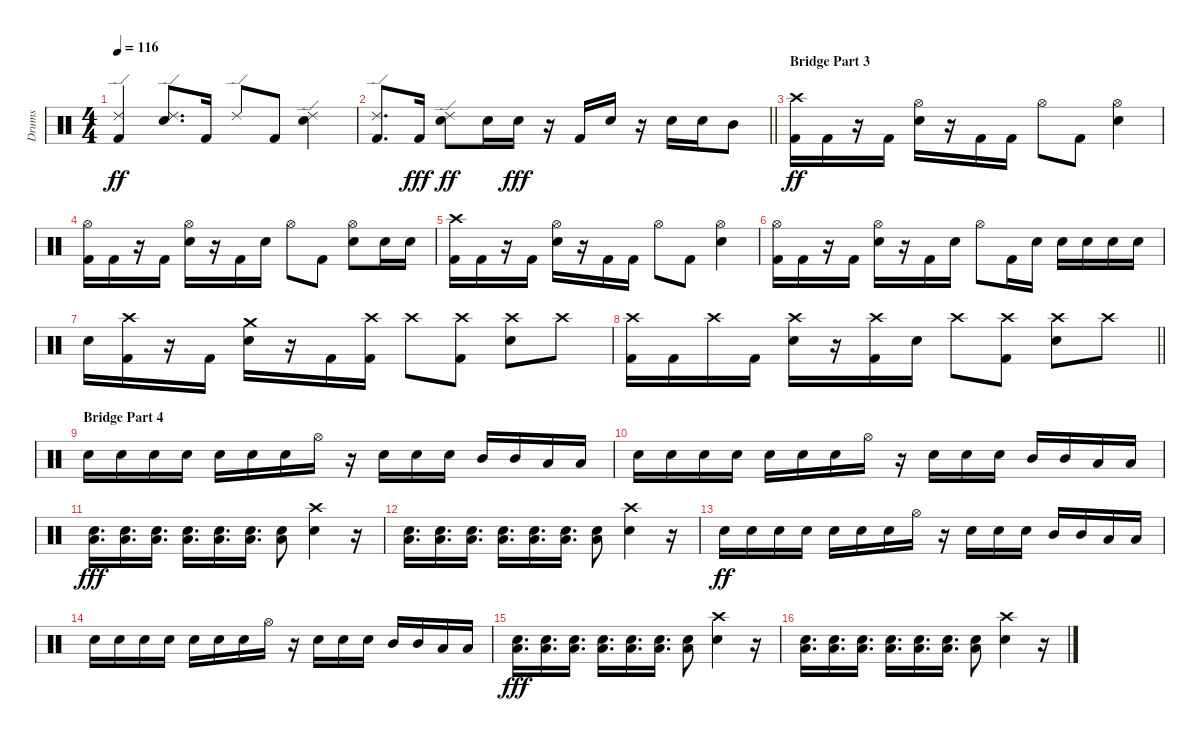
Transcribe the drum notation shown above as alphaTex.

\track ("Drums" "Drums") {instrument percussion}
\staff {score}
\articulation defaults
\ts (4 4)
\tempo 116
\clef neutral
\ks c
("Ride (edge) 2" "Kick (hit) 2").4{dy ff} ("Ride (edge) 2" "Electric Snare (hit)").8{d} "Kick (hit) 2".16 "Ride (edge) 2".8 "Kick (hit) 2".8 ("Ride (edge) 2" "Electric Snare (hit)").4 |
\barLineRight lightlight
("Ride (edge) 2" "Kick (hit) 2").8{d} "Kick (hit) 2".16{dy fff} ("Ride (edge) 2" "Electric Snare (hit)").8{dy ff} "Electric Snare (hit)".16 "Electric Snare (hit)".16{dy fff} r.16 "Kick (hit) 2".16 "Electric Snare (hit)".16 r.16 "Electric Snare (hit)".16 "Electric Snare (hit)".16 "Mid Tom (hit)".8 |
\section ("" "Bridge Part 3")
("Kick (hit) 2" "Crash high (hit)").16{dy ff} "Kick (hit) 2".16 r.16 "Kick (hit) 2".16 ("Electric Snare (hit)" "Hi-Hat (open)").16 r.16 "Kick (hit) 2".16 "Kick (hit) 2".16 "Hi-Hat (open)".8 "Kick (hit) 2".8 ("Electric Snare (hit)" "Hi-Hat (open)").4 |
("Kick (hit) 2" "Hi-Hat (open)").16 "Kick (hit) 2".16 r.16 "Kick (hit) 2".16 ("Electric Snare (hit)" "Hi-Hat (open)").16 r.16 "Kick (hit) 2".16 "Electric Snare (hit)".16 "Hi-Hat (open)".8 "Kick (hit) 2".8 ("Electric Snare (hit)" "Hi-Hat (open)").8 "Electric Snare (hit)".16 "Electric Snare (hit)".16 |
("Kick (hit) 2" "Crash high (hit)").16 "Kick (hit) 2".16 r.16 "Kick (hit) 2".16 ("Electric Snare (hit)" "Hi-Hat (open)").16 r.16 "Kick (hit) 2".16 "Kick (hit) 2".16 "Hi-Hat (open)".8 "Kick (hit) 2".8 ("Electric Snare (hit)" "Hi-Hat (open)").4 |
("Kick (hit) 2" "Hi-Hat (open)").16 "Kick (hit) 2".16 r.16 "Kick (hit) 2".16 ("Electric Snare (hit)" "Hi-Hat (open)").16 r.16 "Kick (hit) 2".16 "Electric Snare (hit)".16 "Hi-Hat (open)".8 "Kick (hit) 2".16 "Electric Snare (hit)".16 "Electric Snare (hit)".16 "Electric Snare (hit)".16 "Electric Snare (hit)".16 "Electric Snare (hit)".16 |
"Electric Snare (hit)".16 ("Kick (hit) 2" "Crash high (hit)").16 r.16 "Kick (hit) 2".16 ("Electric Snare (hit)" "Crash medium (hit)").16 r.16 "Kick (hit) 2".16 ("Kick (hit) 2" "Crash high (hit)").16 "Crash high (hit)".8 ("Kick (hit) 2" "Crash high (hit)").8 ("Electric Snare (hit)" "Crash high (hit)").8 "Crash high (hit)".8 |
\barLineRight lightlight
("Kick (hit) 2" "Crash high (hit)").16 "Kick (hit) 2".16 "Crash high (hit)".16 "Kick (hit) 2".16 ("Electric Snare (hit)" "Crash high (hit)").16 r.16 ("Kick (hit) 2" "Crash high (hit)").16 "Electric Snare (hit)".16 "Crash high (hit)".8 ("Kick (hit) 2" "Crash high (hit)").8 ("Electric Snare (hit)" "Crash high (hit)").8 "Crash high (hit)".8 |
\section ("" "Bridge Part 4")
"Electric Snare (hit)".16 "Electric Snare (hit)".16 "Electric Snare (hit)".16 "Electric Snare (hit)".16 "Electric Snare (hit)".16 "Electric Snare (hit)".16 "Electric Snare (hit)".16 "Hi-Hat (open)".16 r.16 "Electric Snare (hit)".16 "Electric Snare (hit)".16 "Electric Snare (hit)".16 "Mid Tom (hit)".16 "Mid Tom (hit)".16 "Low Tom (hit)".16 "Low Tom (hit)".16 |
"Electric Snare (hit)".16 "Electric Snare (hit)".16 "Electric Snare (hit)".16 "Electric Snare (hit)".16 "Electric Snare (hit)".16 "Electric Snare (hit)".16 "Electric Snare (hit)".16 "Hi-Hat (open)".16 r.16 "Electric Snare (hit)".16 "Electric Snare (hit)".16 "Electric Snare (hit)".16 "Mid Tom (hit)".16 "Mid Tom (hit)".16 "Low Tom (hit)".16 "Low Tom (hit)".16 |
("Low Tom (hit)" "Electric Snare (hit)").16{d dy fff} ("Low Tom (hit)" "Electric Snare (hit)").16{d} ("Low Tom (hit)" "Electric Snare (hit)").16{d} ("Low Tom (hit)" "Electric Snare (hit)").16{d} ("Low Tom (hit)" "Electric Snare (hit)").16{d} ("Low Tom (hit)" "Electric Snare (hit)").16{d} ("Low Tom (hit)" "Electric Snare (hit)").8 ("Crash high (hit)" "Electric Snare (hit)").4 r.16 |
("Low Tom (hit)" "Electric Snare (hit)").16{d} ("Low Tom (hit)" "Electric Snare (hit)").16{d} ("Low Tom (hit)" "Electric Snare (hit)").16{d} ("Low Tom (hit)" "Electric Snare (hit)").16{d} ("Low Tom (hit)" "Electric Snare (hit)").16{d} ("Low Tom (hit)" "Electric Snare (hit)").16{d} ("Low Tom (hit)" "Electric Snare (hit)").8 ("Crash high (hit)" "Electric Snare (hit)").4 r.16 |
"Electric Snare (hit)".16{dy ff} "Electric Snare (hit)".16 "Electric Snare (hit)".16 "Electric Snare (hit)".16 "Electric Snare (hit)".16 "Electric Snare (hit)".16 "Electric Snare (hit)".16 "Hi-Hat (open)".16 r.16 "Electric Snare (hit)".16 "Electric Snare (hit)".16 "Electric Snare (hit)".16 "Mid Tom (hit)".16 "Mid Tom (hit)".16 "Low Tom (hit)".16 "Low Tom (hit)".16 |
"Electric Snare (hit)".16 "Electric Snare (hit)".16 "Electric Snare (hit)".16 "Electric Snare (hit)".16 "Electric Snare (hit)".16 "Electric Snare (hit)".16 "Electric Snare (hit)".16 "Hi-Hat (open)".16 r.16 "Electric Snare (hit)".16 "Electric Snare (hit)".16 "Electric Snare (hit)".16 "Mid Tom (hit)".16 "Mid Tom (hit)".16 "Low Tom (hit)".16 "Low Tom (hit)".16 |
("Low Tom (hit)" "Electric Snare (hit)").16{d dy fff} ("Low Tom (hit)" "Electric Snare (hit)").16{d} ("Low Tom (hit)" "Electric Snare (hit)").16{d} ("Low Tom (hit)" "Electric Snare (hit)").16{d} ("Low Tom (hit)" "Electric Snare (hit)").16{d} ("Low Tom (hit)" "Electric Snare (hit)").16{d} ("Low Tom (hit)" "Electric Snare (hit)").8 ("Crash high (hit)" "Electric Snare (hit)").4 r.16 |
("Low Tom (hit)" "Electric Snare (hit)").16{d} ("Low Tom (hit)" "Electric Snare (hit)").16{d} ("Low Tom (hit)" "Electric Snare (hit)").16{d} ("Low Tom (hit)" "Electric Snare (hit)").16{d} ("Low Tom (hit)" "Electric Snare (hit)").16{d} ("Low Tom (hit)" "Electric Snare (hit)").16{d} ("Low Tom (hit)" "Electric Snare (hit)").8 ("Crash high (hit)" "Electric Snare (hit)").4 r.16
